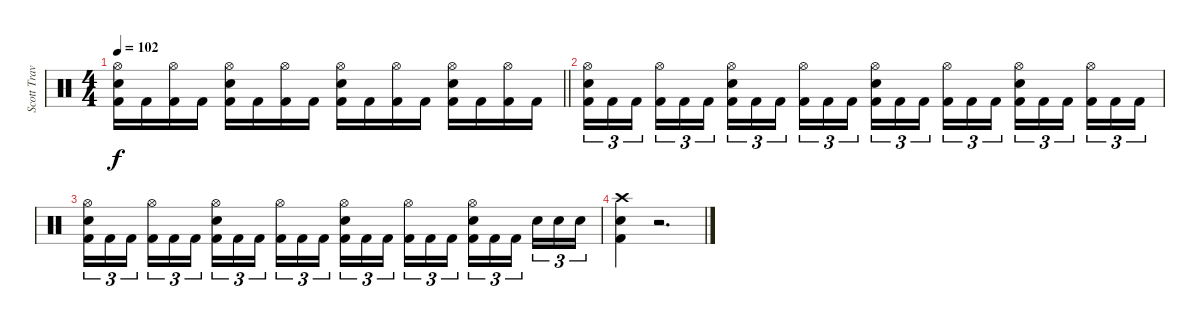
\track ("Scott Travis" "Scott Trav") {instrument percussion}
\staff {score}
\articulation defaults
\ts (4 4)
\tempo 102
\clef neutral
\barLineRight lightlight
\ks c
("Hi-Hat (open)" "Snare (hit) 2" "Kick (hit) 2").16{dy f} "Kick (hit) 2".16 ("Hi-Hat (open)" "Kick (hit) 2").16 "Kick (hit) 2".16 ("Hi-Hat (open)" "Snare (hit) 2" "Kick (hit) 2").16 "Kick (hit) 2".16 ("Hi-Hat (open)" "Kick (hit) 2").16 "Kick (hit) 2".16 ("Hi-Hat (open)" "Snare (hit) 2" "Kick (hit) 2").16 "Kick (hit) 2".16 ("Hi-Hat (open)" "Kick (hit) 2").16 "Kick (hit) 2".16 ("Hi-Hat (open)" "Snare (hit) 2" "Kick (hit) 2").16 "Kick (hit) 2".16 ("Hi-Hat (open)" "Kick (hit) 2").16 "Kick (hit) 2".16 |
("Hi-Hat (open)" "Snare (hit) 2" "Kick (hit) 2").16{tu (3 2)} "Kick (hit) 2".16{tu (3 2)} "Kick (hit) 2".16{tu (3 2) beam splitsecondary} ("Hi-Hat (open)" "Kick (hit) 2").16{tu (3 2)} "Kick (hit) 2".16{tu (3 2)} "Kick (hit) 2".16{tu (3 2)} ("Hi-Hat (open)" "Snare (hit) 2" "Kick (hit) 2").16{tu (3 2)} "Kick (hit) 2".16{tu (3 2)} "Kick (hit) 2".16{tu (3 2) beam splitsecondary} ("Hi-Hat (open)" "Kick (hit) 2").16{tu (3 2)} "Kick (hit) 2".16{tu (3 2)} "Kick (hit) 2".16{tu (3 2)} ("Hi-Hat (open)" "Snare (hit) 2" "Kick (hit) 2").16{tu (3 2)} "Kick (hit) 2".16{tu (3 2)} "Kick (hit) 2".16{tu (3 2) beam splitsecondary} ("Hi-Hat (open)" "Kick (hit) 2").16{tu (3 2)} "Kick (hit) 2".16{tu (3 2)} "Kick (hit) 2".16{tu (3 2)} ("Hi-Hat (open)" "Snare (hit) 2" "Kick (hit) 2").16{tu (3 2)} "Kick (hit) 2".16{tu (3 2)} "Kick (hit) 2".16{tu (3 2) beam splitsecondary} ("Hi-Hat (open)" "Kick (hit) 2").16{tu (3 2)} "Kick (hit) 2".16{tu (3 2)} "Kick (hit) 2".16{tu (3 2)} |
("Hi-Hat (open)" "Snare (hit) 2" "Kick (hit) 2").16{tu (3 2)} "Kick (hit) 2".16{tu (3 2)} "Kick (hit) 2".16{tu (3 2) beam splitsecondary} ("Hi-Hat (open)" "Kick (hit) 2").16{tu (3 2)} "Kick (hit) 2".16{tu (3 2)} "Kick (hit) 2".16{tu (3 2)} ("Hi-Hat (open)" "Snare (hit) 2" "Kick (hit) 2").16{tu (3 2)} "Kick (hit) 2".16{tu (3 2)} "Kick (hit) 2".16{tu (3 2) beam splitsecondary} ("Hi-Hat (open)" "Kick (hit) 2").16{tu (3 2)} "Kick (hit) 2".16{tu (3 2)} "Kick (hit) 2".16{tu (3 2)} ("Hi-Hat (open)" "Snare (hit) 2" "Kick (hit) 2").16{tu (3 2)} "Kick (hit) 2".16{tu (3 2)} "Kick (hit) 2".16{tu (3 2) beam splitsecondary} ("Hi-Hat (open)" "Kick (hit) 2").16{tu (3 2)} "Kick (hit) 2".16{tu (3 2)} "Kick (hit) 2".16{tu (3 2)} ("Hi-Hat (open)" "Snare (hit) 2" "Kick (hit) 2").16{tu (3 2)} "Kick (hit) 2".16{tu (3 2)} "Kick (hit) 2".16{tu (3 2) beam splitsecondary} "Snare (hit) 2".16{tu (3 2)} "Snare (hit) 2".16{tu (3 2)} "Snare (hit) 2".16{tu (3 2)} |
("Crash high (hit)" "Snare (hit) 2" "Kick (hit) 2").4 r.2{d}
